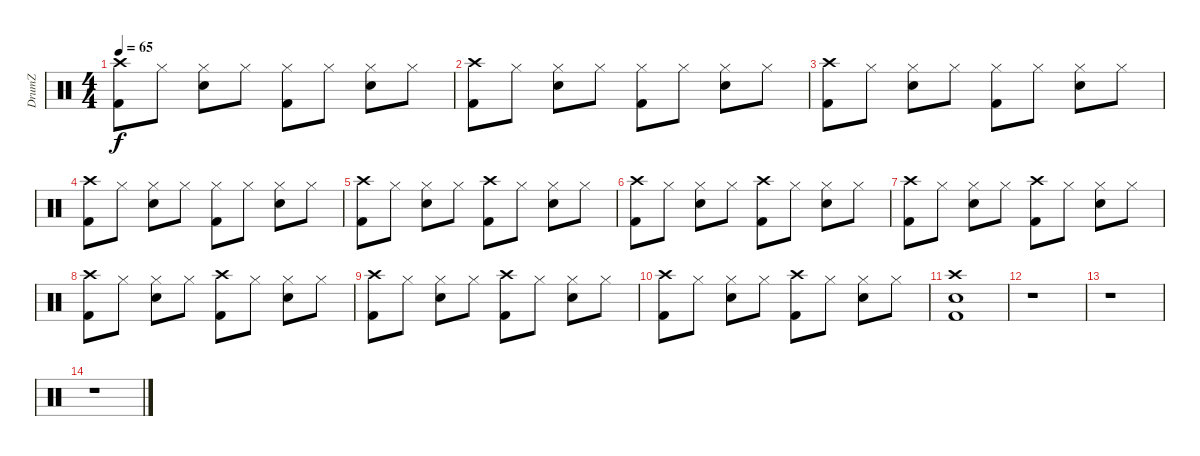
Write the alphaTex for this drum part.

\track ("DrumZ" "DrumZ") {instrument percussion}
\staff {score}
\articulation defaults
\ts (4 4)
\tempo 65
\clef neutral
\ks c
("Crash high (hit)" "Kick (hit) 2").8{dy f} "Hi-Hat (closed)".8 ("Hi-Hat (closed)" "Electric Snare (hit)").8 "Hi-Hat (closed)".8 ("Hi-Hat (closed)" "Kick (hit) 2").8 "Hi-Hat (closed)".8 ("Hi-Hat (closed)" "Electric Snare (hit)").8 "Hi-Hat (closed)".8 |
("Crash high (hit)" "Kick (hit) 2").8 "Hi-Hat (closed)".8 ("Hi-Hat (closed)" "Electric Snare (hit)").8 "Hi-Hat (closed)".8 ("Hi-Hat (closed)" "Kick (hit) 2").8 "Hi-Hat (closed)".8 ("Hi-Hat (closed)" "Electric Snare (hit)").8 "Hi-Hat (closed)".8 |
("Crash high (hit)" "Kick (hit) 2").8 "Hi-Hat (closed)".8 ("Hi-Hat (closed)" "Electric Snare (hit)").8 "Hi-Hat (closed)".8 ("Hi-Hat (closed)" "Kick (hit) 2").8 "Hi-Hat (closed)".8 ("Hi-Hat (closed)" "Electric Snare (hit)").8 "Hi-Hat (closed)".8 |
("Crash high (hit)" "Kick (hit) 2").8 "Hi-Hat (closed)".8 ("Hi-Hat (closed)" "Electric Snare (hit)").8 "Hi-Hat (closed)".8 ("Hi-Hat (closed)" "Kick (hit) 2").8 "Hi-Hat (closed)".8 ("Hi-Hat (closed)" "Electric Snare (hit)").8 "Hi-Hat (closed)".8 |
("Crash high (hit)" "Kick (hit) 2").8 "Hi-Hat (closed)".8 ("Hi-Hat (closed)" "Electric Snare (hit)").8 "Hi-Hat (closed)".8 ("Crash high (hit)" "Kick (hit) 2").8 "Hi-Hat (closed)".8 ("Hi-Hat (closed)" "Electric Snare (hit)").8 "Hi-Hat (closed)".8 |
("Crash high (hit)" "Kick (hit) 2").8 "Hi-Hat (closed)".8 ("Hi-Hat (closed)" "Electric Snare (hit)").8 "Hi-Hat (closed)".8 ("Crash high (hit)" "Kick (hit) 2").8 "Hi-Hat (closed)".8 ("Hi-Hat (closed)" "Electric Snare (hit)").8 "Hi-Hat (closed)".8 |
("Crash high (hit)" "Kick (hit) 2").8 "Hi-Hat (closed)".8 ("Hi-Hat (closed)" "Electric Snare (hit)").8 "Hi-Hat (closed)".8 ("Crash high (hit)" "Kick (hit) 2").8 "Hi-Hat (closed)".8 ("Hi-Hat (closed)" "Electric Snare (hit)").8 "Hi-Hat (closed)".8 |
("Crash high (hit)" "Kick (hit) 2").8 "Hi-Hat (closed)".8 ("Hi-Hat (closed)" "Electric Snare (hit)").8 "Hi-Hat (closed)".8 ("Crash high (hit)" "Kick (hit) 2").8 "Hi-Hat (closed)".8 ("Hi-Hat (closed)" "Electric Snare (hit)").8 "Hi-Hat (closed)".8 |
("Crash high (hit)" "Kick (hit) 2").8 "Hi-Hat (closed)".8 ("Hi-Hat (closed)" "Electric Snare (hit)").8 "Hi-Hat (closed)".8 ("Crash high (hit)" "Kick (hit) 2").8 "Hi-Hat (closed)".8 ("Hi-Hat (closed)" "Electric Snare (hit)").8 "Hi-Hat (closed)".8 |
("Crash high (hit)" "Kick (hit) 2").8 "Hi-Hat (closed)".8 ("Hi-Hat (closed)" "Electric Snare (hit)").8 "Hi-Hat (closed)".8 ("Crash high (hit)" "Kick (hit) 2").8 "Hi-Hat (closed)".8 ("Hi-Hat (closed)" "Electric Snare (hit)").8 "Hi-Hat (closed)".8 |
("Crash high (hit)" "Electric Snare (hit)" "Kick (hit) 2").1 |
r.1 |
r.1 |
r.1
